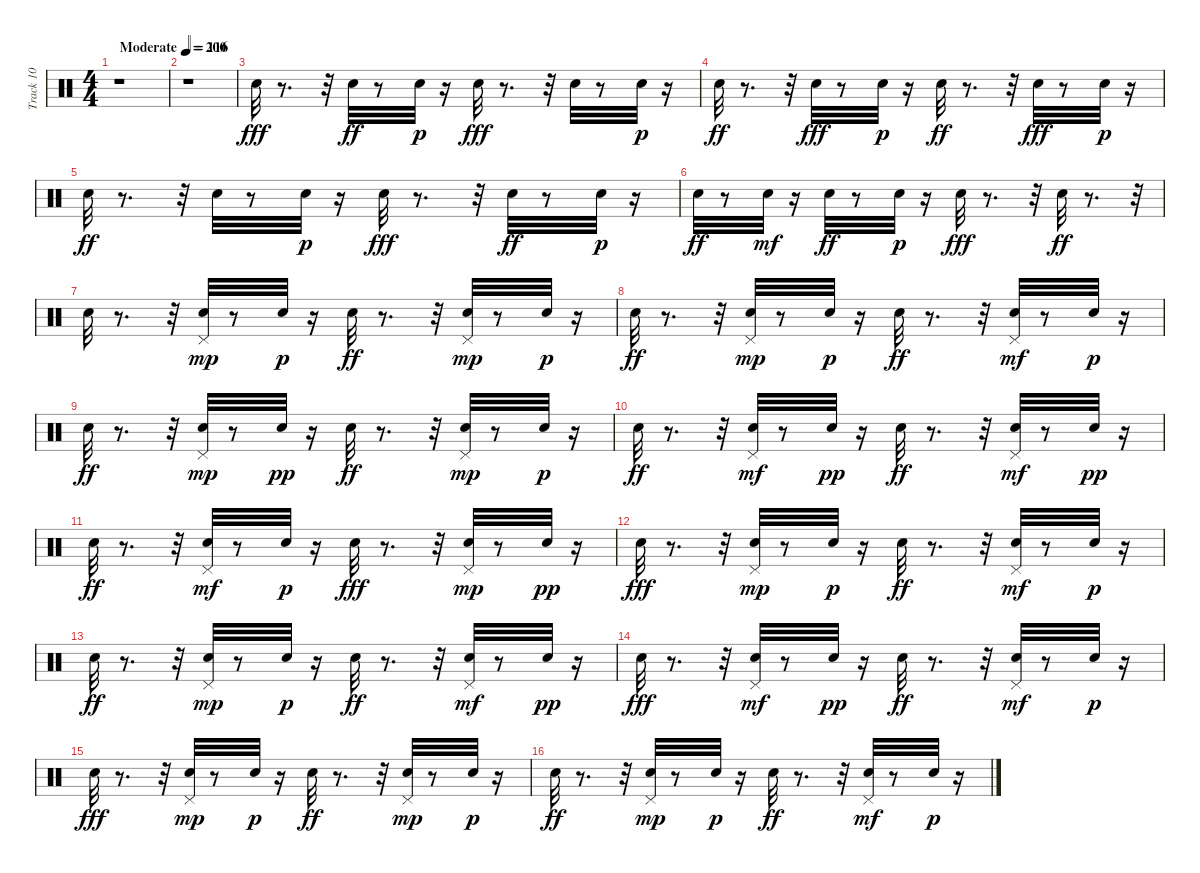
\track ("Track 10" "Track 10") {instrument percussion}
\staff {score}
\articulation defaults
\ts (4 4)
\tempo (200 "Moderate")
\clef neutral
\ks c
r.1{dy fff} |
\tempo 116
r.1 |
"Snare (hit) 2".32 r.8{d} r.32 "Snare (hit) 2".32{dy ff} r.8 "Snare (hit) 2".32{dy p} r.16 "Snare (hit) 2".32{dy fff} r.8{d} r.32 "Snare (hit) 2".32 r.8 "Snare (hit) 2".32{dy p} r.16 |
"Snare (hit) 2".32{dy ff} r.8{d} r.32 "Snare (hit) 2".32{dy fff} r.8 "Snare (hit) 2".32{dy p} r.16 "Snare (hit) 2".32{dy ff} r.8{d} r.32 "Snare (hit) 2".32{dy fff} r.8 "Snare (hit) 2".32{dy p} r.16 |
"Snare (hit) 2".32{dy ff} r.8{d} r.32 "Snare (hit) 2".32 r.8 "Snare (hit) 2".32{dy p} r.16 "Snare (hit) 2".32{dy fff} r.8{d} r.32 "Snare (hit) 2".32{dy ff} r.8 "Snare (hit) 2".32{dy p} r.16 |
"Snare (hit) 2".32{dy ff} r.8 "Snare (hit) 2".32{dy mf} r.16 "Snare (hit) 2".32{dy ff} r.8 "Snare (hit) 2".32{dy p} r.16 "Snare (hit) 2".32{dy fff} r.8{d} r.32 "Snare (hit) 2".32{dy ff} r.8{d} r.32 |
"Snare (hit) 2".32 r.8{d} r.32 ("Snare (hit) 2" "Pedal Hi-Hat (hit)").32{dy mp} r.8 "Snare (hit) 2".32{dy p} r.16 "Snare (hit) 2".32{dy ff} r.8{d} r.32 ("Snare (hit) 2" "Pedal Hi-Hat (hit)").32{dy mp} r.8 "Snare (hit) 2".32{dy p} r.16 |
"Snare (hit) 2".32{dy ff} r.8{d} r.32 ("Snare (hit) 2" "Pedal Hi-Hat (hit)").32{dy mp} r.8 "Snare (hit) 2".32{dy p} r.16 "Snare (hit) 2".32{dy ff} r.8{d} r.32 ("Snare (hit) 2" "Pedal Hi-Hat (hit)").32{dy mf} r.8 "Snare (hit) 2".32{dy p} r.16 |
"Snare (hit) 2".32{dy ff} r.8{d} r.32 ("Snare (hit) 2" "Pedal Hi-Hat (hit)").32{dy mp} r.8 "Snare (hit) 2".32{dy pp} r.16 "Snare (hit) 2".32{dy ff} r.8{d} r.32 ("Snare (hit) 2" "Pedal Hi-Hat (hit)").32{dy mp} r.8 "Snare (hit) 2".32{dy p} r.16 |
"Snare (hit) 2".32{dy ff} r.8{d} r.32 ("Snare (hit) 2" "Pedal Hi-Hat (hit)").32{dy mf} r.8 "Snare (hit) 2".32{dy pp} r.16 "Snare (hit) 2".32{dy ff} r.8{d} r.32 ("Snare (hit) 2" "Pedal Hi-Hat (hit)").32{dy mf} r.8 "Snare (hit) 2".32{dy pp} r.16 |
"Snare (hit) 2".32{dy ff} r.8{d} r.32 ("Snare (hit) 2" "Pedal Hi-Hat (hit)").32{dy mf} r.8 "Snare (hit) 2".32{dy p} r.16 "Snare (hit) 2".32{dy fff} r.8{d} r.32 ("Snare (hit) 2" "Pedal Hi-Hat (hit)").32{dy mp} r.8 "Snare (hit) 2".32{dy pp} r.16 |
"Snare (hit) 2".32{dy fff} r.8{d} r.32 ("Snare (hit) 2" "Pedal Hi-Hat (hit)").32{dy mp} r.8 "Snare (hit) 2".32{dy p} r.16 "Snare (hit) 2".32{dy ff} r.8{d} r.32 ("Snare (hit) 2" "Pedal Hi-Hat (hit)").32{dy mf} r.8 "Snare (hit) 2".32{dy p} r.16 |
"Snare (hit) 2".32{dy ff} r.8{d} r.32 ("Snare (hit) 2" "Pedal Hi-Hat (hit)").32{dy mp} r.8 "Snare (hit) 2".32{dy p} r.16 "Snare (hit) 2".32{dy ff} r.8{d} r.32 ("Snare (hit) 2" "Pedal Hi-Hat (hit)").32{dy mf} r.8 "Snare (hit) 2".32{dy pp} r.16 |
"Snare (hit) 2".32{dy fff} r.8{d} r.32 ("Snare (hit) 2" "Pedal Hi-Hat (hit)").32{dy mf} r.8 "Snare (hit) 2".32{dy pp} r.16 "Snare (hit) 2".32{dy ff} r.8{d} r.32 ("Snare (hit) 2" "Pedal Hi-Hat (hit)").32{dy mf} r.8 "Snare (hit) 2".32{dy p} r.16 |
"Snare (hit) 2".32{dy fff} r.8{d} r.32 ("Snare (hit) 2" "Pedal Hi-Hat (hit)").32{dy mp} r.8 "Snare (hit) 2".32{dy p} r.16 "Snare (hit) 2".32{dy ff} r.8{d} r.32 ("Snare (hit) 2" "Pedal Hi-Hat (hit)").32{dy mp} r.8 "Snare (hit) 2".32{dy p} r.16 |
"Snare (hit) 2".32{dy ff} r.8{d} r.32 ("Snare (hit) 2" "Pedal Hi-Hat (hit)").32{dy mp} r.8 "Snare (hit) 2".32{dy p} r.16 "Snare (hit) 2".32{dy ff} r.8{d} r.32 ("Snare (hit) 2" "Pedal Hi-Hat (hit)").32{dy mf} r.8 "Snare (hit) 2".32{dy p} r.16
